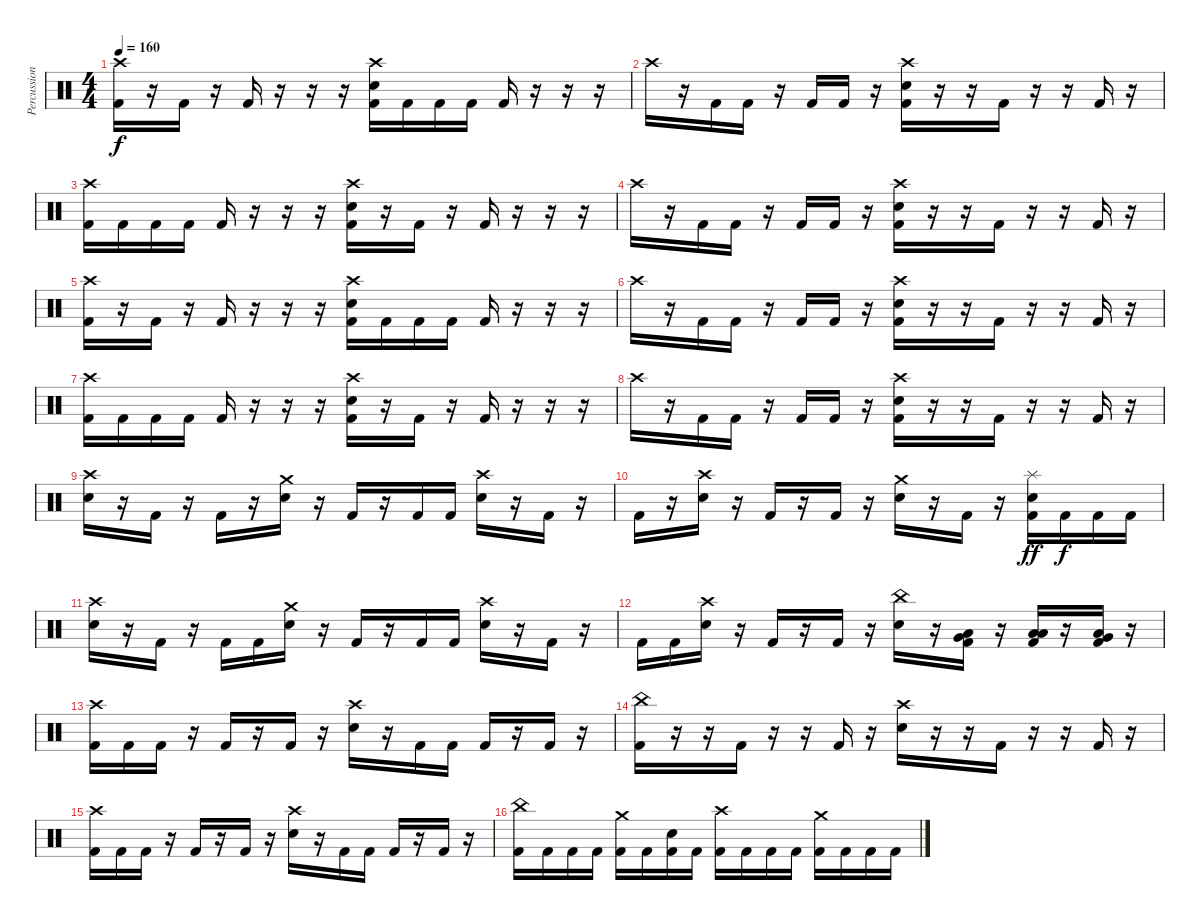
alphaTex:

\track ("Percussion" "Percussion") {instrument percussion}
\staff {score}
\articulation defaults
\ts (4 4)
\tempo 160
\clef neutral
\ks c
("Crash high (hit)" "Kick (hit) 2").16{dy f} r.16 "Kick (hit) 2".16 r.16 "Kick (hit) 2".16 r.16 r.16 r.16 ("Crash high (hit)" "Snare (hit) 2" "Kick (hit) 2").16 "Kick (hit) 2".16 "Kick (hit) 2".16 "Kick (hit) 2".16 "Kick (hit) 2".16 r.16 r.16 r.16 |
"Crash high (hit)".16 r.16 "Kick (hit) 2".16 "Kick (hit) 2".16 r.16 "Kick (hit) 2".16 "Kick (hit) 2".16 r.16 ("Crash high (hit)" "Snare (hit) 2" "Kick (hit) 2").16 r.16 r.16 "Kick (hit) 2".16 r.16 r.16 "Kick (hit) 2".16 r.16 |
("Crash high (hit)" "Kick (hit) 2").16 "Kick (hit) 2".16 "Kick (hit) 2".16 "Kick (hit) 2".16 "Kick (hit) 2".16 r.16 r.16 r.16 ("Crash high (hit)" "Snare (hit) 2" "Kick (hit) 2").16 r.16 "Kick (hit) 2".16 r.16 "Kick (hit) 2".16 r.16 r.16 r.16 |
"Crash high (hit)".16 r.16 "Kick (hit) 2".16 "Kick (hit) 2".16 r.16 "Kick (hit) 2".16 "Kick (hit) 2".16 r.16 ("Crash high (hit)" "Snare (hit) 2" "Kick (hit) 2").16 r.16 r.16 "Kick (hit) 2".16 r.16 r.16 "Kick (hit) 2".16 r.16 |
("Crash high (hit)" "Kick (hit) 2").16 r.16 "Kick (hit) 2".16 r.16 "Kick (hit) 2".16 r.16 r.16 r.16 ("Crash high (hit)" "Snare (hit) 2" "Kick (hit) 2").16 "Kick (hit) 2".16 "Kick (hit) 2".16 "Kick (hit) 2".16 "Kick (hit) 2".16 r.16 r.16 r.16 |
"Crash high (hit)".16 r.16 "Kick (hit) 2".16 "Kick (hit) 2".16 r.16 "Kick (hit) 2".16 "Kick (hit) 2".16 r.16 ("Crash high (hit)" "Snare (hit) 2" "Kick (hit) 2").16 r.16 r.16 "Kick (hit) 2".16 r.16 r.16 "Kick (hit) 2".16 r.16 |
("Crash high (hit)" "Kick (hit) 2").16 "Kick (hit) 2".16 "Kick (hit) 2".16 "Kick (hit) 2".16 "Kick (hit) 2".16 r.16 r.16 r.16 ("Crash high (hit)" "Snare (hit) 2" "Kick (hit) 2").16 r.16 "Kick (hit) 2".16 r.16 "Kick (hit) 2".16 r.16 r.16 r.16 |
"Crash high (hit)".16 r.16 "Kick (hit) 2".16 "Kick (hit) 2".16 r.16 "Kick (hit) 2".16 "Kick (hit) 2".16 r.16 ("Crash high (hit)" "Snare (hit) 2" "Kick (hit) 2").16 r.16 r.16 "Kick (hit) 2".16 r.16 r.16 "Kick (hit) 2".16 r.16 |
("Crash high (hit)" "Snare (hit) 2").16 r.16 "Kick (hit) 2".16 r.16 "Kick (hit) 2".16 r.16 ("Crash medium (hit)" "Snare (hit) 2").16 r.16 "Kick (hit) 2".16 r.16 "Kick (hit) 2".16 "Kick (hit) 2".16 ("Crash high (hit)" "Snare (hit) 2").16 r.16 "Kick (hit) 2".16 r.16 |
"Kick (hit) 2".16 r.16 ("Crash high (hit)" "Snare (hit) 2").16 r.16 "Kick (hit) 2".16 r.16 "Kick (hit) 2".16 r.16 ("Crash medium (hit)" "Snare (hit) 2").16 r.16 "Kick (hit) 2".16 r.16 ("Splash (hit)" "Snare (hit) 2" "Kick (hit) 2").16{dy ff} "Kick (hit) 2".16{dy f} "Kick (hit) 2".16 "Kick (hit) 2".16 |
("Crash high (hit)" "Snare (hit) 2").16 r.16 "Kick (hit) 2".16 r.16 "Kick (hit) 2".16 "Kick (hit) 2".16 ("Crash medium (hit)" "Snare (hit) 2").16 r.16 "Kick (hit) 2".16 r.16 "Kick (hit) 2".16 "Kick (hit) 2".16 ("Crash high (hit)" "Snare (hit) 2").16 r.16 "Kick (hit) 2".16 r.16 |
"Kick (hit) 2".16 "Kick (hit) 2".16 ("Crash high (hit)" "Snare (hit) 2").16 r.16 "Kick (hit) 2".16 r.16 "Kick (hit) 2".16 r.16 ("China (hit)" "Snare (hit) 2").16 r.16 ("Very Low Tom (hit)" "Low Floor Tom (hit)" "Kick (hit) 2").16 r.16 ("Low Tom (hit)" "Low Floor Tom (hit)" "Kick (hit) 2").16 r.16 ("Very Low Tom (hit)" "Low Floor Tom (hit)" "Kick (hit) 2").16 r.16 |
("Crash high (hit)" "Kick (hit) 2").16 "Kick (hit) 2".16 "Kick (hit) 2".16 r.16 "Kick (hit) 2".16 r.16 "Kick (hit) 2".16 r.16 ("Crash high (hit)" "Snare (hit) 2").16 r.16 "Kick (hit) 2".16 "Kick (hit) 2".16 "Kick (hit) 2".16 r.16 "Kick (hit) 2".16 r.16 |
("China (hit)" "Kick (hit) 2").16 r.16 r.16 "Kick (hit) 2".16 r.16 r.16 "Kick (hit) 2".16 r.16 ("Crash high (hit)" "Snare (hit) 2").16 r.16 r.16 "Kick (hit) 2".16 r.16 r.16 "Kick (hit) 2".16 r.16 |
("Crash high (hit)" "Kick (hit) 2").16 "Kick (hit) 2".16 "Kick (hit) 2".16 r.16 "Kick (hit) 2".16 r.16 "Kick (hit) 2".16 r.16 ("Crash high (hit)" "Snare (hit) 2").16 r.16 "Kick (hit) 2".16 "Kick (hit) 2".16 "Kick (hit) 2".16 r.16 "Kick (hit) 2".16 r.16 |
("China (hit)" "Kick (hit) 2").16 "Kick (hit) 2".16 "Kick (hit) 2".16 "Kick (hit) 2".16 ("Crash medium (hit)" "Kick (hit) 2").16 "Kick (hit) 2".16 ("Snare (hit) 2" "Kick (hit) 2").16 "Kick (hit) 2".16 ("Crash high (hit)" "Kick (hit) 2").16 "Kick (hit) 2".16 "Kick (hit) 2".16 "Kick (hit) 2".16 ("Crash medium (hit)" "Kick (hit) 2").16 "Kick (hit) 2".16 "Kick (hit) 2".16 "Kick (hit) 2".16
